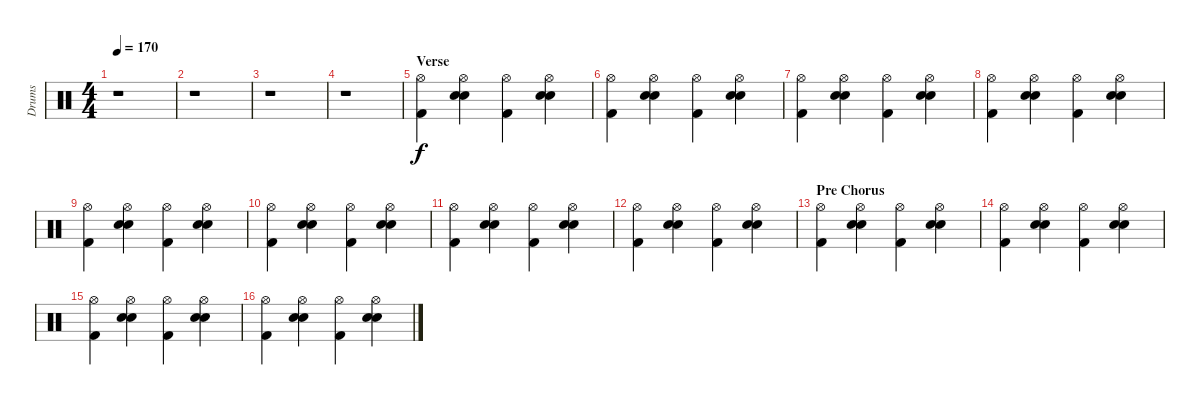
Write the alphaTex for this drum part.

\track ("Drums" "Drums") {instrument percussion}
\staff {score}
\articulation defaults
\ts (4 4)
\tempo 170
\clef neutral
\ks c
r.1{dy f} |
r.1 |
r.1 |
r.1 |
\section ("" "Verse")
("Hi-Hat (open)" "Kick (hit) 2").4 ("Hi-Hat (open)" "Electric Snare (hit)" "Hand Clap (hit)").4 ("Hi-Hat (open)" "Kick (hit) 2").4 ("Hi-Hat (open)" "Electric Snare (hit)" "Hand Clap (hit)").4 |
("Hi-Hat (open)" "Kick (hit) 2").4 ("Hi-Hat (open)" "Electric Snare (hit)" "Hand Clap (hit)").4 ("Hi-Hat (open)" "Kick (hit) 2").4 ("Hi-Hat (open)" "Electric Snare (hit)" "Hand Clap (hit)").4 |
("Hi-Hat (open)" "Kick (hit) 2").4 ("Hi-Hat (open)" "Electric Snare (hit)" "Hand Clap (hit)").4 ("Hi-Hat (open)" "Kick (hit) 2").4 ("Hi-Hat (open)" "Electric Snare (hit)" "Hand Clap (hit)").4 |
("Hi-Hat (open)" "Kick (hit) 2").4 ("Hi-Hat (open)" "Electric Snare (hit)" "Hand Clap (hit)").4 ("Hi-Hat (open)" "Kick (hit) 2").4 ("Hi-Hat (open)" "Electric Snare (hit)" "Hand Clap (hit)").4 |
("Hi-Hat (open)" "Kick (hit) 2").4 ("Hi-Hat (open)" "Electric Snare (hit)" "Hand Clap (hit)").4 ("Hi-Hat (open)" "Kick (hit) 2").4 ("Hi-Hat (open)" "Electric Snare (hit)" "Hand Clap (hit)").4 |
("Hi-Hat (open)" "Kick (hit) 2").4 ("Hi-Hat (open)" "Electric Snare (hit)" "Hand Clap (hit)").4 ("Hi-Hat (open)" "Kick (hit) 2").4 ("Hi-Hat (open)" "Electric Snare (hit)" "Hand Clap (hit)").4 |
("Hi-Hat (open)" "Kick (hit) 2").4 ("Hi-Hat (open)" "Electric Snare (hit)" "Hand Clap (hit)").4 ("Hi-Hat (open)" "Kick (hit) 2").4 ("Hi-Hat (open)" "Electric Snare (hit)" "Hand Clap (hit)").4 |
("Hi-Hat (open)" "Kick (hit) 2").4 ("Hi-Hat (open)" "Electric Snare (hit)" "Hand Clap (hit)").4 ("Hi-Hat (open)" "Kick (hit) 2").4 ("Hi-Hat (open)" "Electric Snare (hit)" "Hand Clap (hit)").4 |
\section ("" "Pre Chorus")
("Hi-Hat (open)" "Kick (hit) 2").4 ("Hi-Hat (open)" "Electric Snare (hit)" "Hand Clap (hit)").4 ("Hi-Hat (open)" "Kick (hit) 2").4 ("Hi-Hat (open)" "Electric Snare (hit)" "Hand Clap (hit)").4 |
("Hi-Hat (open)" "Kick (hit) 2").4 ("Hi-Hat (open)" "Electric Snare (hit)" "Hand Clap (hit)").4 ("Hi-Hat (open)" "Kick (hit) 2").4 ("Hi-Hat (open)" "Electric Snare (hit)" "Hand Clap (hit)").4 |
("Hi-Hat (open)" "Kick (hit) 2").4 ("Hi-Hat (open)" "Electric Snare (hit)" "Hand Clap (hit)").4 ("Hi-Hat (open)" "Kick (hit) 2").4 ("Hi-Hat (open)" "Electric Snare (hit)" "Hand Clap (hit)").4 |
("Hi-Hat (open)" "Kick (hit) 2").4 ("Hi-Hat (open)" "Electric Snare (hit)" "Hand Clap (hit)").4 ("Hi-Hat (open)" "Kick (hit) 2").4 ("Hi-Hat (open)" "Electric Snare (hit)" "Hand Clap (hit)").4
